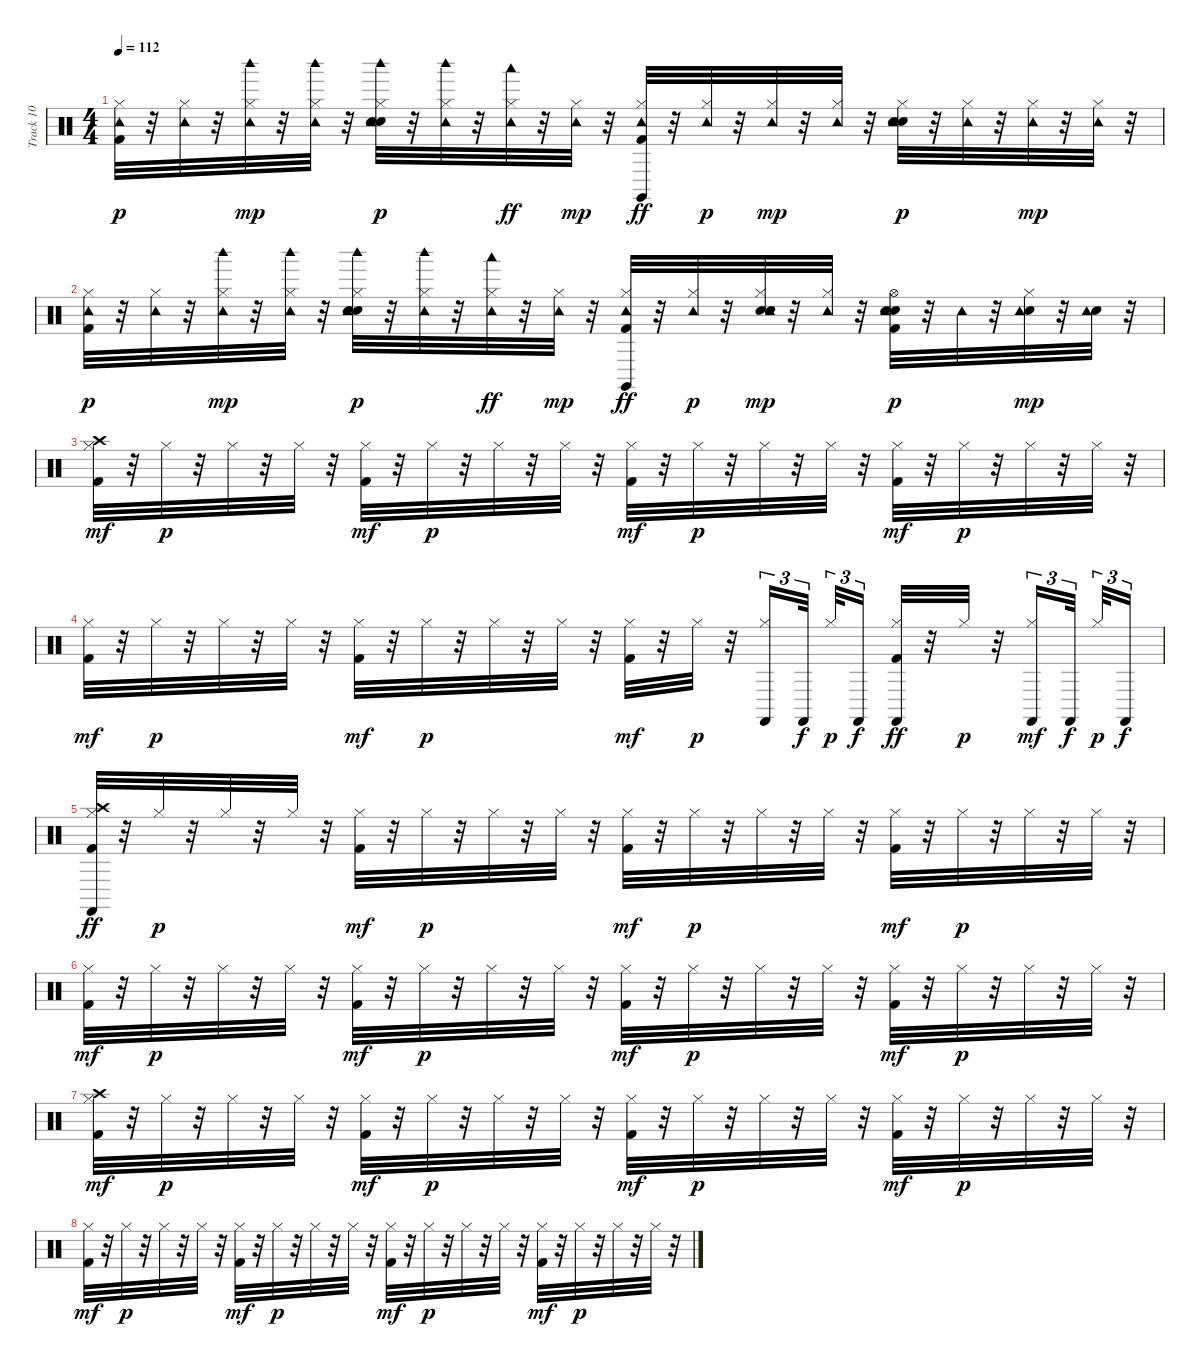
\track ("Track 10" "Track 10") {instrument percussion}
\staff {score}
\articulation defaults
\ts (4 4)
\tempo 112
\clef neutral
\ks c
("Kick (hit) 2" "Hi-Hat (closed)" "Tambourine (hit)").32{dy p} r.32 ("Hi-Hat (closed)" "Tambourine (hit)").32 r.32 ("Hi-Hat (closed)" "Tambourine (hit)" "Woodblock high (hit)").32{dy mp} r.32 ("Hi-Hat (closed)" "Tambourine (hit)" "Woodblock high (hit)").32 r.32 ("Hand Clap (hit)" "Electric Snare (hit)" "Hi-Hat (closed)" "Tambourine (hit)" "Woodblock high (hit)").32{dy p} r.32 ("Hi-Hat (closed)" "Tambourine (hit)" "Woodblock high (hit)").32 r.32 ("Hi-Hat (closed)" "Tambourine (hit)" "Woodblock low (hit)").32{dy ff} r.32 ("Hi-Hat (closed)" "Tambourine (hit)").32{dy mp} r.32 ("Kick (hit) 2" "Hi-Hat (closed)" "Tambourine (hit)" "Claves (hit)").32{dy ff} r.32 ("Hi-Hat (closed)" "Tambourine (hit)").32{dy p} r.32 ("Hi-Hat (closed)" "Tambourine (hit)").32{dy mp} r.32 ("Hi-Hat (closed)" "Tambourine (hit)").32 r.32 ("Hand Clap (hit)" "Electric Snare (hit)" "Hi-Hat (closed)" "Tambourine (hit)").32{dy p} r.32 ("Hi-Hat (closed)" "Tambourine (hit)").32 r.32 ("Hi-Hat (closed)" "Tambourine (hit)").32{dy mp} r.32 ("Hi-Hat (closed)" "Tambourine (hit)").32 r.32 |
("Kick (hit) 2" "Hi-Hat (closed)" "Tambourine (hit)").32{dy p} r.32 ("Hi-Hat (closed)" "Tambourine (hit)").32 r.32 ("Hi-Hat (closed)" "Tambourine (hit)" "Woodblock high (hit)").32{dy mp} r.32 ("Hi-Hat (closed)" "Tambourine (hit)" "Woodblock high (hit)").32 r.32 ("Hand Clap (hit)" "Electric Snare (hit)" "Hi-Hat (closed)" "Tambourine (hit)" "Woodblock high (hit)").32{dy p} r.32 ("Hi-Hat (closed)" "Tambourine (hit)" "Woodblock high (hit)").32 r.32 ("Hi-Hat (closed)" "Tambourine (hit)" "Woodblock low (hit)").32{dy ff} r.32 ("Hi-Hat (closed)" "Tambourine (hit)").32{dy mp} r.32 ("Kick (hit) 2" "Hi-Hat (closed)" "Tambourine (hit)" "Claves (hit)").32{dy ff} r.32 ("Hi-Hat (closed)" "Tambourine (hit)").32{dy p} r.32 ("Hand Clap (hit)" "Electric Snare (hit)" "Hi-Hat (closed)" "Tambourine (hit)").32{dy mp} r.32 ("Hi-Hat (closed)" "Tambourine (hit)").32 r.32 ("Kick (hit) 2" "Hand Clap (hit)" "Electric Snare (hit)" "Hi-Hat (open)" "Tambourine (hit)").32{dy p} r.32 "Tambourine (hit)".32 r.32 ("Electric Snare (hit)" "Hi-Hat (closed)" "Tambourine (hit)").32{dy mp} r.32 ("Electric Snare (hit)" "Tambourine (hit)").32 r.32 |
("Kick (hit) 2" "Hi-Hat (closed)" "Crash high (hit)").32{dy mf} r.32 "Hi-Hat (closed)".32{dy p} r.32 "Hi-Hat (closed)".32 r.32 "Hi-Hat (closed)".32 r.32 ("Kick (hit) 2" "Hi-Hat (closed)").32{dy mf} r.32 "Hi-Hat (closed)".32{dy p} r.32 "Hi-Hat (closed)".32 r.32 "Hi-Hat (closed)".32 r.32 ("Kick (hit) 2" "Hi-Hat (closed)").32{dy mf} r.32 "Hi-Hat (closed)".32{dy p} r.32 "Hi-Hat (closed)".32 r.32 "Hi-Hat (closed)".32 r.32 ("Kick (hit) 2" "Hi-Hat (closed)").32{dy mf} r.32 "Hi-Hat (closed)".32{dy p} r.32 "Hi-Hat (closed)".32 r.32 "Hi-Hat (closed)".32 r.32 |
("Kick (hit) 2" "Hi-Hat (closed)").32{dy mf} r.32 "Hi-Hat (closed)".32{dy p} r.32 "Hi-Hat (closed)".32 r.32 "Hi-Hat (closed)".32 r.32 ("Kick (hit) 2" "Hi-Hat (closed)").32{dy mf} r.32 "Hi-Hat (closed)".32{dy p} r.32 "Hi-Hat (closed)".32 r.32 "Hi-Hat (closed)".32 r.32 ("Kick (hit) 2" "Hi-Hat (closed)").32{dy mf} r.32 "Hi-Hat (closed)".32{dy p} r.32 ("Hi-Hat (closed)" "Castanets (hit)").16{tu (3 2)} "Castanets (hit)".32{tu (3 2) dy f beam splitsecondary} "Hi-Hat (closed)".32{tu (3 2) dy p} "Castanets (hit)".16{tu (3 2) dy f} ("Kick (hit) 2" "Hi-Hat (closed)" "Castanets (hit)").32{dy ff} r.32 "Hi-Hat (closed)".32{dy p} r.32 ("Hi-Hat (closed)" "Castanets (hit)").16{tu (3 2) dy mf} "Castanets (hit)".32{tu (3 2) dy f beam splitsecondary} "Hi-Hat (closed)".32{tu (3 2) dy p} "Castanets (hit)".16{tu (3 2) dy f} |
("Kick (hit) 2" "Hi-Hat (closed)" "Crash high (hit)" "Castanets (hit)").32{dy ff} r.32 "Hi-Hat (closed)".32{dy p} r.32 "Hi-Hat (closed)".32 r.32 "Hi-Hat (closed)".32 r.32 ("Kick (hit) 2" "Hi-Hat (closed)").32{dy mf} r.32 "Hi-Hat (closed)".32{dy p} r.32 "Hi-Hat (closed)".32 r.32 "Hi-Hat (closed)".32 r.32 ("Kick (hit) 2" "Hi-Hat (closed)").32{dy mf} r.32 "Hi-Hat (closed)".32{dy p} r.32 "Hi-Hat (closed)".32 r.32 "Hi-Hat (closed)".32 r.32 ("Kick (hit) 2" "Hi-Hat (closed)").32{dy mf} r.32 "Hi-Hat (closed)".32{dy p} r.32 "Hi-Hat (closed)".32 r.32 "Hi-Hat (closed)".32 r.32 |
("Kick (hit) 2" "Hi-Hat (closed)").32{dy mf} r.32 "Hi-Hat (closed)".32{dy p} r.32 "Hi-Hat (closed)".32 r.32 "Hi-Hat (closed)".32 r.32 ("Kick (hit) 2" "Hi-Hat (closed)").32{dy mf} r.32 "Hi-Hat (closed)".32{dy p} r.32 "Hi-Hat (closed)".32 r.32 "Hi-Hat (closed)".32 r.32 ("Kick (hit) 2" "Hi-Hat (closed)").32{dy mf} r.32 "Hi-Hat (closed)".32{dy p} r.32 "Hi-Hat (closed)".32 r.32 "Hi-Hat (closed)".32 r.32 ("Kick (hit) 2" "Hi-Hat (closed)").32{dy mf} r.32 "Hi-Hat (closed)".32{dy p} r.32 "Hi-Hat (closed)".32 r.32 "Hi-Hat (closed)".32 r.32 |
("Kick (hit) 2" "Hi-Hat (closed)" "Crash high (hit)").32{dy mf} r.32 "Hi-Hat (closed)".32{dy p} r.32 "Hi-Hat (closed)".32 r.32 "Hi-Hat (closed)".32 r.32 ("Kick (hit) 2" "Hi-Hat (closed)").32{dy mf} r.32 "Hi-Hat (closed)".32{dy p} r.32 "Hi-Hat (closed)".32 r.32 "Hi-Hat (closed)".32 r.32 ("Kick (hit) 2" "Hi-Hat (closed)").32{dy mf} r.32 "Hi-Hat (closed)".32{dy p} r.32 "Hi-Hat (closed)".32 r.32 "Hi-Hat (closed)".32 r.32 ("Kick (hit) 2" "Hi-Hat (closed)").32{dy mf} r.32 "Hi-Hat (closed)".32{dy p} r.32 "Hi-Hat (closed)".32 r.32 "Hi-Hat (closed)".32 r.32 |
("Kick (hit) 2" "Hi-Hat (closed)").32{dy mf} r.32 "Hi-Hat (closed)".32{dy p} r.32 "Hi-Hat (closed)".32 r.32 "Hi-Hat (closed)".32 r.32 ("Kick (hit) 2" "Hi-Hat (closed)").32{dy mf} r.32 "Hi-Hat (closed)".32{dy p} r.32 "Hi-Hat (closed)".32 r.32 "Hi-Hat (closed)".32 r.32 ("Kick (hit) 2" "Hi-Hat (closed)").32{dy mf} r.32 "Hi-Hat (closed)".32{dy p} r.32 "Hi-Hat (closed)".32 r.32 "Hi-Hat (closed)".32 r.32 ("Kick (hit) 2" "Hi-Hat (closed)").32{dy mf} r.32 "Hi-Hat (closed)".32{dy p} r.32 "Hi-Hat (closed)".32 r.32 "Hi-Hat (closed)".32 r.32
